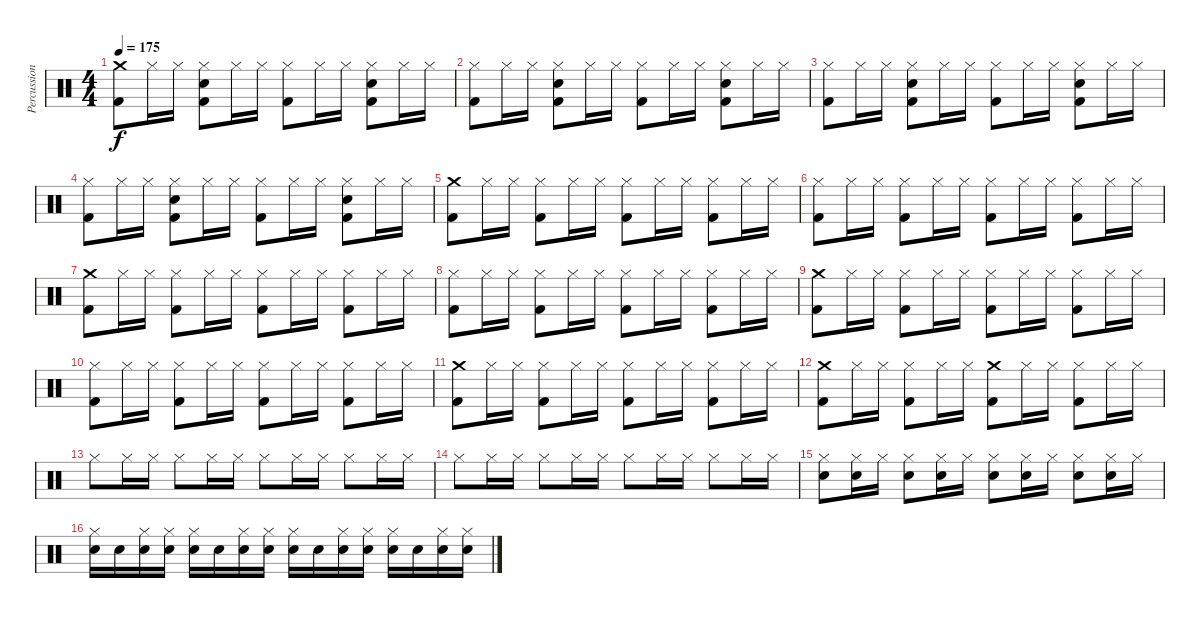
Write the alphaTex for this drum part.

\track ("Percussions" "Percussion") {instrument percussion}
\staff {score}
\articulation defaults
\ts (4 4)
\tempo 175
\clef neutral
\ks c
("Crash medium (hit)" "Kick (hit) 2").8{dy f} "Hi-Hat (closed)".16 "Hi-Hat (closed)".16 ("Hi-Hat (closed)" "Snare (hit) 2" "Kick (hit) 2").8 "Hi-Hat (closed)".16 "Hi-Hat (closed)".16 ("Hi-Hat (closed)" "Kick (hit) 2").8 "Hi-Hat (closed)".16 "Hi-Hat (closed)".16 ("Hi-Hat (closed)" "Snare (hit) 2" "Kick (hit) 2").8 "Hi-Hat (closed)".16 "Hi-Hat (closed)".16 |
("Hi-Hat (closed)" "Kick (hit) 2").8 "Hi-Hat (closed)".16 "Hi-Hat (closed)".16 ("Hi-Hat (closed)" "Snare (hit) 2" "Kick (hit) 2").8 "Hi-Hat (closed)".16 "Hi-Hat (closed)".16 ("Hi-Hat (closed)" "Kick (hit) 2").8 "Hi-Hat (closed)".16 "Hi-Hat (closed)".16 ("Hi-Hat (closed)" "Snare (hit) 2" "Kick (hit) 2").8 "Hi-Hat (closed)".16 "Hi-Hat (closed)".16 |
("Hi-Hat (closed)" "Kick (hit) 2").8 "Hi-Hat (closed)".16 "Hi-Hat (closed)".16 ("Hi-Hat (closed)" "Snare (hit) 2" "Kick (hit) 2").8 "Hi-Hat (closed)".16 "Hi-Hat (closed)".16 ("Hi-Hat (closed)" "Kick (hit) 2").8 "Hi-Hat (closed)".16 "Hi-Hat (closed)".16 ("Hi-Hat (closed)" "Snare (hit) 2" "Kick (hit) 2").8 "Hi-Hat (closed)".16 "Hi-Hat (closed)".16 |
("Hi-Hat (closed)" "Kick (hit) 2").8 "Hi-Hat (closed)".16 "Hi-Hat (closed)".16 ("Hi-Hat (closed)" "Snare (hit) 2" "Kick (hit) 2").8 "Hi-Hat (closed)".16 "Hi-Hat (closed)".16 ("Hi-Hat (closed)" "Kick (hit) 2").8 "Hi-Hat (closed)".16 "Hi-Hat (closed)".16 ("Hi-Hat (closed)" "Snare (hit) 2" "Kick (hit) 2").8 "Hi-Hat (closed)".16 "Hi-Hat (closed)".16 |
("Crash medium (hit)" "Kick (hit) 2").8 "Hi-Hat (closed)".16 "Hi-Hat (closed)".16 ("Hi-Hat (closed)" "Kick (hit) 2").8 "Hi-Hat (closed)".16 "Hi-Hat (closed)".16 ("Hi-Hat (closed)" "Kick (hit) 2").8 "Hi-Hat (closed)".16 "Hi-Hat (closed)".16 ("Hi-Hat (closed)" "Kick (hit) 2").8 "Hi-Hat (closed)".16 "Hi-Hat (closed)".16 |
("Hi-Hat (closed)" "Kick (hit) 2").8 "Hi-Hat (closed)".16 "Hi-Hat (closed)".16 ("Hi-Hat (closed)" "Kick (hit) 2").8 "Hi-Hat (closed)".16 "Hi-Hat (closed)".16 ("Hi-Hat (closed)" "Kick (hit) 2").8 "Hi-Hat (closed)".16 "Hi-Hat (closed)".16 ("Hi-Hat (closed)" "Kick (hit) 2").8 "Hi-Hat (closed)".16 "Hi-Hat (closed)".16 |
("Crash medium (hit)" "Kick (hit) 2").8 "Hi-Hat (closed)".16 "Hi-Hat (closed)".16 ("Hi-Hat (closed)" "Kick (hit) 2").8 "Hi-Hat (closed)".16 "Hi-Hat (closed)".16 ("Hi-Hat (closed)" "Kick (hit) 2").8 "Hi-Hat (closed)".16 "Hi-Hat (closed)".16 ("Hi-Hat (closed)" "Kick (hit) 2").8 "Hi-Hat (closed)".16 "Hi-Hat (closed)".16 |
("Hi-Hat (closed)" "Kick (hit) 2").8 "Hi-Hat (closed)".16 "Hi-Hat (closed)".16 ("Hi-Hat (closed)" "Kick (hit) 2").8 "Hi-Hat (closed)".16 "Hi-Hat (closed)".16 ("Hi-Hat (closed)" "Kick (hit) 2").8 "Hi-Hat (closed)".16 "Hi-Hat (closed)".16 ("Hi-Hat (closed)" "Kick (hit) 2").8 "Hi-Hat (closed)".16 "Hi-Hat (closed)".16 |
("Crash medium (hit)" "Kick (hit) 2").8 "Hi-Hat (closed)".16 "Hi-Hat (closed)".16 ("Hi-Hat (closed)" "Kick (hit) 2").8 "Hi-Hat (closed)".16 "Hi-Hat (closed)".16 ("Hi-Hat (closed)" "Kick (hit) 2").8 "Hi-Hat (closed)".16 "Hi-Hat (closed)".16 ("Hi-Hat (closed)" "Kick (hit) 2").8 "Hi-Hat (closed)".16 "Hi-Hat (closed)".16 |
("Hi-Hat (closed)" "Kick (hit) 2").8 "Hi-Hat (closed)".16 "Hi-Hat (closed)".16 ("Hi-Hat (closed)" "Kick (hit) 2").8 "Hi-Hat (closed)".16 "Hi-Hat (closed)".16 ("Hi-Hat (closed)" "Kick (hit) 2").8 "Hi-Hat (closed)".16 "Hi-Hat (closed)".16 ("Hi-Hat (closed)" "Kick (hit) 2").8 "Hi-Hat (closed)".16 "Hi-Hat (closed)".16 |
("Crash medium (hit)" "Kick (hit) 2").8 "Hi-Hat (closed)".16 "Hi-Hat (closed)".16 ("Hi-Hat (closed)" "Kick (hit) 2").8 "Hi-Hat (closed)".16 "Hi-Hat (closed)".16 ("Hi-Hat (closed)" "Kick (hit) 2").8 "Hi-Hat (closed)".16 "Hi-Hat (closed)".16 ("Hi-Hat (closed)" "Kick (hit) 2").8 "Hi-Hat (closed)".16 "Hi-Hat (closed)".16 |
("Crash medium (hit)" "Kick (hit) 2").8 "Hi-Hat (closed)".16 "Hi-Hat (closed)".16 ("Hi-Hat (closed)" "Kick (hit) 2").8 "Hi-Hat (closed)".16 "Hi-Hat (closed)".16 ("Crash medium (hit)" "Kick (hit) 2").8 "Hi-Hat (closed)".16 "Hi-Hat (closed)".16 ("Hi-Hat (closed)" "Kick (hit) 2").8 "Hi-Hat (closed)".16 "Hi-Hat (closed)".16 |
"Hi-Hat (closed)".8 "Hi-Hat (closed)".16 "Hi-Hat (closed)".16 "Hi-Hat (closed)".8 "Hi-Hat (closed)".16 "Hi-Hat (closed)".16 "Hi-Hat (closed)".8 "Hi-Hat (closed)".16 "Hi-Hat (closed)".16 "Hi-Hat (closed)".8 "Hi-Hat (closed)".16 "Hi-Hat (closed)".16 |
"Hi-Hat (closed)".8 "Hi-Hat (closed)".16 "Hi-Hat (closed)".16 "Hi-Hat (closed)".8 "Hi-Hat (closed)".16 "Hi-Hat (closed)".16 "Hi-Hat (closed)".8 "Hi-Hat (closed)".16 "Hi-Hat (closed)".16 "Hi-Hat (closed)".8 "Hi-Hat (closed)".16 "Hi-Hat (closed)".16 |
("Hi-Hat (closed)" "Snare (hit) 2").8 ("Hi-Hat (closed)" "Snare (hit) 2").16 "Hi-Hat (closed)".16 ("Hi-Hat (closed)" "Snare (hit) 2").8 ("Hi-Hat (closed)" "Snare (hit) 2").16 "Hi-Hat (closed)".16 ("Hi-Hat (closed)" "Snare (hit) 2").8 ("Hi-Hat (closed)" "Snare (hit) 2").16 "Hi-Hat (closed)".16 ("Hi-Hat (closed)" "Snare (hit) 2").8 ("Hi-Hat (closed)" "Snare (hit) 2").16 "Hi-Hat (closed)".16 |
("Hi-Hat (closed)" "Snare (hit) 2").16 "Snare (hit) 2".16 ("Hi-Hat (closed)" "Snare (hit) 2").16 ("Hi-Hat (closed)" "Snare (hit) 2").16 ("Hi-Hat (closed)" "Snare (hit) 2").16 "Snare (hit) 2".16 ("Hi-Hat (closed)" "Snare (hit) 2").16 ("Hi-Hat (closed)" "Snare (hit) 2").16 ("Hi-Hat (closed)" "Snare (hit) 2").16 "Snare (hit) 2".16 ("Hi-Hat (closed)" "Snare (hit) 2").16 ("Hi-Hat (closed)" "Snare (hit) 2").16 ("Hi-Hat (closed)" "Snare (hit) 2").16 "Snare (hit) 2".16 ("Hi-Hat (closed)" "Snare (hit) 2").16 ("Hi-Hat (closed)" "Snare (hit) 2").16
